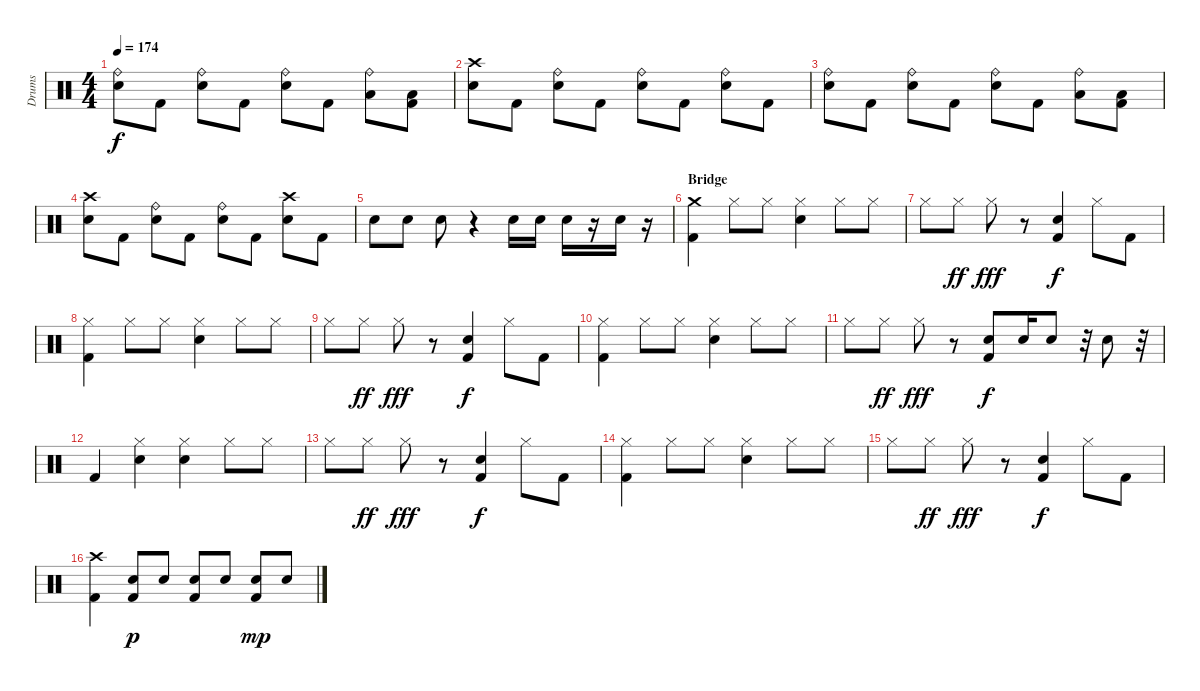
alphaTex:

\track ("Drums" "Drums") {instrument percussion}
\staff {score}
\articulation defaults
\ts (4 4)
\tempo 174
\clef neutral
\ks c
("Ride (bell)" "Electric Snare (hit)").8{dy f} "Kick (hit) 2".8 ("Ride (bell)" "Electric Snare (hit)").8 "Kick (hit) 2".8 ("Ride (bell)" "Electric Snare (hit)").8 "Kick (hit) 2".8 ("Ride (bell)" "Low Tom (hit)").8 ("Low Tom (hit)" "Kick (hit) 2").8 |
("Crash high (hit)" "Electric Snare (hit)").8 "Kick (hit) 2".8 ("Ride (bell)" "Electric Snare (hit)").8 "Kick (hit) 2".8 ("Ride (bell)" "Electric Snare (hit)").8 "Kick (hit) 2".8 ("Ride (bell)" "Electric Snare (hit)").8 "Kick (hit) 2".8 |
("Ride (bell)" "Electric Snare (hit)").8 "Kick (hit) 2".8 ("Ride (bell)" "Electric Snare (hit)").8 "Kick (hit) 2".8 ("Ride (bell)" "Electric Snare (hit)").8 "Kick (hit) 2".8 ("Ride (bell)" "Low Tom (hit)").8 ("Low Tom (hit)" "Kick (hit) 2").8 |
("Crash high (hit)" "Electric Snare (hit)").8 "Kick (hit) 2".8 ("Ride (bell)" "Electric Snare (hit)").8 "Kick (hit) 2".8 ("Ride (bell)" "Electric Snare (hit)").8 "Kick (hit) 2".8 ("Crash high (hit)" "Electric Snare (hit)").8 "Kick (hit) 2".8 |
"Electric Snare (hit)".8 "Electric Snare (hit)".8 "Electric Snare (hit)".8 r.4 "Electric Snare (hit)".16 "Electric Snare (hit)".16 "Electric Snare (hit)".16 r.16 "Electric Snare (hit)".16 r.16 |
\section ("" "Bridge")
("Crash medium (hit)" "Kick (hit) 2").4 "Hi-Hat (closed)".8 "Hi-Hat (closed)".8 ("Hi-Hat (closed)" "Electric Snare (hit)").4 "Hi-Hat (closed)".8 "Hi-Hat (closed)".8 |
"Hi-Hat (closed)".8 "Hi-Hat (closed)".8{dy ff} "Hi-Hat (closed)".8{dy fff} r.8 ("Electric Snare (hit)" "Kick (hit) 2").4{dy f} "Hi-Hat (closed)".8 "Kick (hit) 2".8 |
("Hi-Hat (closed)" "Kick (hit) 2").4 "Hi-Hat (closed)".8 "Hi-Hat (closed)".8 ("Hi-Hat (closed)" "Electric Snare (hit)").4 "Hi-Hat (closed)".8 "Hi-Hat (closed)".8 |
"Hi-Hat (closed)".8 "Hi-Hat (closed)".8{dy ff} "Hi-Hat (closed)".8{dy fff} r.8 ("Electric Snare (hit)" "Kick (hit) 2").4{dy f} "Hi-Hat (closed)".8 "Kick (hit) 2".8 |
("Hi-Hat (closed)" "Kick (hit) 2").4 "Hi-Hat (closed)".8 "Hi-Hat (closed)".8 ("Hi-Hat (closed)" "Electric Snare (hit)").4 "Hi-Hat (closed)".8 "Hi-Hat (closed)".8 |
"Hi-Hat (closed)".8 "Hi-Hat (closed)".8{dy ff} "Hi-Hat (closed)".8{dy fff} r.8 ("Electric Snare (hit)" "Kick (hit) 2").8{dy f} "Electric Snare (hit)".16 "Electric Snare (hit)".8 r.32 "Electric Snare (hit)".8 r.32 |
"Kick (hit) 2".4 ("Hi-Hat (closed)" "Electric Snare (hit)").4 ("Hi-Hat (closed)" "Electric Snare (hit)").4 "Hi-Hat (closed)".8 "Hi-Hat (closed)".8 |
"Hi-Hat (closed)".8 "Hi-Hat (closed)".8{dy ff} "Hi-Hat (closed)".8{dy fff} r.8 ("Electric Snare (hit)" "Kick (hit) 2").4{dy f} "Hi-Hat (closed)".8 "Kick (hit) 2".8 |
("Hi-Hat (closed)" "Kick (hit) 2").4 "Hi-Hat (closed)".8 "Hi-Hat (closed)".8 ("Hi-Hat (closed)" "Electric Snare (hit)").4 "Hi-Hat (closed)".8 "Hi-Hat (closed)".8 |
"Hi-Hat (closed)".8 "Hi-Hat (closed)".8{dy ff} "Hi-Hat (closed)".8{dy fff} r.8 ("Electric Snare (hit)" "Kick (hit) 2").4{dy f} "Hi-Hat (closed)".8 "Kick (hit) 2".8 |
("Crash high (hit)" "Kick (hit) 2").4 ("Electric Snare (hit)" "Kick (hit) 2").8{dy p} "Electric Snare (hit)".8 ("Electric Snare (hit)" "Kick (hit) 2").8 "Electric Snare (hit)".8 ("Electric Snare (hit)" "Kick (hit) 2").8{dy mp} "Electric Snare (hit)".8
